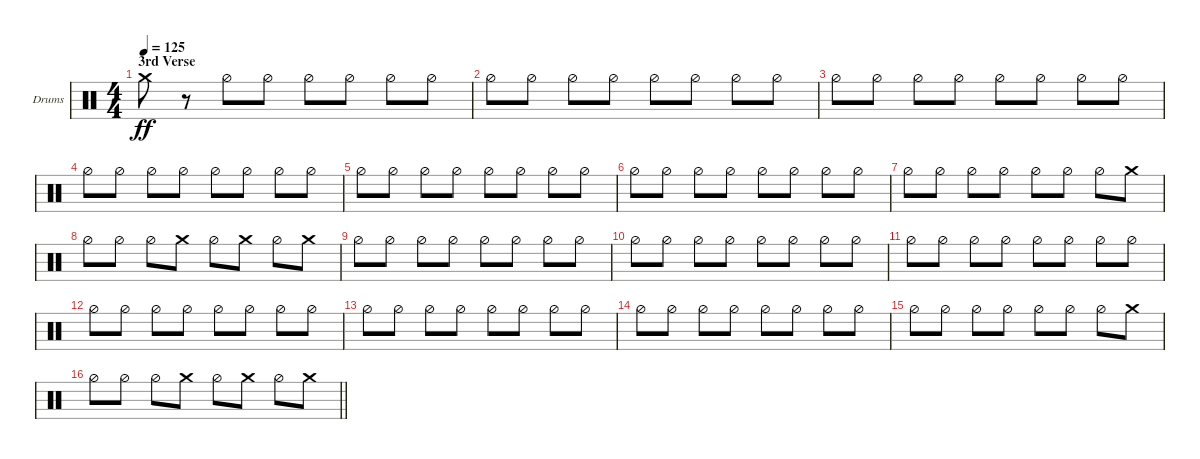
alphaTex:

\bracketExtendMode groupsimilarinstruments
\firstSystemTrackNameOrientation horizontal
\otherSystemsTrackNameOrientation horizontal
\track ("Nick Menza" "Drums") {instrument percussion}
\staff {score}
\articulation defaults
\ts (4 4)
\section ("" "3rd Verse")
\tempo 125
\clef neutral
\scale
0.333333
\ks c "Crash medium (hit)".8{dy ff}
r.8 "Hi-Hat (half)".8 "Hi-Hat (half)".8 "Hi-Hat (half)".8 "Hi-Hat (half)".8 "Hi-Hat (half)".8 "Hi-Hat (half)".8 |
\scale
0.333333 "Hi-Hat (half)".8 "Hi-Hat (half)".8 "Hi-Hat (half)".8 "Hi-Hat (half)".8 "Hi-Hat (half)".8 "Hi-Hat (half)".8 "Hi-Hat (half)".8 "Hi-Hat (half)".8 |
\scale
0.333333 "Hi-Hat (half)".8 "Hi-Hat (half)".8 "Hi-Hat (half)".8 "Hi-Hat (half)".8 "Hi-Hat (half)".8 "Hi-Hat (half)".8 "Hi-Hat (half)".8 "Hi-Hat (half)".8 |
\scale
0.333333 "Hi-Hat (half)".8 "Hi-Hat (half)".8 "Hi-Hat (half)".8 "Hi-Hat (half)".8 "Hi-Hat (half)".8 "Hi-Hat (half)".8 "Hi-Hat (half)".8 "Hi-Hat (half)".8 |
\scale
0.333333 "Hi-Hat (half)".8 "Hi-Hat (half)".8 "Hi-Hat (half)".8 "Hi-Hat (half)".8 "Hi-Hat (half)".8 "Hi-Hat (half)".8 "Hi-Hat (half)".8 "Hi-Hat (half)".8 |
\scale
0.333333 "Hi-Hat (half)".8 "Hi-Hat (half)".8 "Hi-Hat (half)".8 "Hi-Hat (half)".8 "Hi-Hat (half)".8 "Hi-Hat (half)".8 "Hi-Hat (half)".8 "Hi-Hat (half)".8 |
\scale
0.333333 "Hi-Hat (half)".8 "Hi-Hat (half)".8 "Hi-Hat (half)".8 "Hi-Hat (half)".8 "Hi-Hat (half)".8 "Hi-Hat (half)".8 "Hi-Hat (half)".8 "Crash medium (hit)".8 |
\scale
0.333333 "Hi-Hat (half)".8 "Hi-Hat (half)".8 "Hi-Hat (half)".8 "Crash medium (hit)".8 "Hi-Hat (half)".8 "Crash medium (hit)".8 "Hi-Hat (half)".8 "Crash medium (hit)".8 |
\scale
0.333333 "Hi-Hat (half)".8 "Hi-Hat (half)".8 "Hi-Hat (half)".8 "Hi-Hat (half)".8 "Hi-Hat (half)".8 "Hi-Hat (half)".8 "Hi-Hat (half)".8 "Hi-Hat (half)".8 |
\scale
0.333333 "Hi-Hat (half)".8 "Hi-Hat (half)".8 "Hi-Hat (half)".8 "Hi-Hat (half)".8 "Hi-Hat (half)".8 "Hi-Hat (half)".8 "Hi-Hat (half)".8 "Hi-Hat (half)".8 |
\scale
0.333333 "Hi-Hat (half)".8 "Hi-Hat (half)".8 "Hi-Hat (half)".8 "Hi-Hat (half)".8 "Hi-Hat (half)".8 "Hi-Hat (half)".8 "Hi-Hat (half)".8 "Hi-Hat (half)".8 |
\scale
0.333333 "Hi-Hat (half)".8 "Hi-Hat (half)".8 "Hi-Hat (half)".8 "Hi-Hat (half)".8 "Hi-Hat (half)".8 "Hi-Hat (half)".8 "Hi-Hat (half)".8 "Hi-Hat (half)".8 |
\scale
0.333333 "Hi-Hat (half)".8 "Hi-Hat (half)".8 "Hi-Hat (half)".8 "Hi-Hat (half)".8 "Hi-Hat (half)".8 "Hi-Hat (half)".8 "Hi-Hat (half)".8 "Hi-Hat (half)".8 |
\scale
0.333333 "Hi-Hat (half)".8 "Hi-Hat (half)".8 "Hi-Hat (half)".8 "Hi-Hat (half)".8 "Hi-Hat (half)".8 "Hi-Hat (half)".8 "Hi-Hat (half)".8 "Hi-Hat (half)".8 |
\scale
0.333333 "Hi-Hat (half)".8 "Hi-Hat (half)".8 "Hi-Hat (half)".8 "Hi-Hat (half)".8 "Hi-Hat (half)".8 "Hi-Hat (half)".8 "Hi-Hat (half)".8 "Crash medium (hit)".8 |
\scale
0.333333
\barLineRight lightlight "Hi-Hat (half)".8 "Hi-Hat (half)".8 "Hi-Hat (half)".8 "Crash medium (hit)".8 "Hi-Hat (half)".8 "Crash medium (hit)".8 "Hi-Hat (half)".8 "Crash medium (hit)".8
